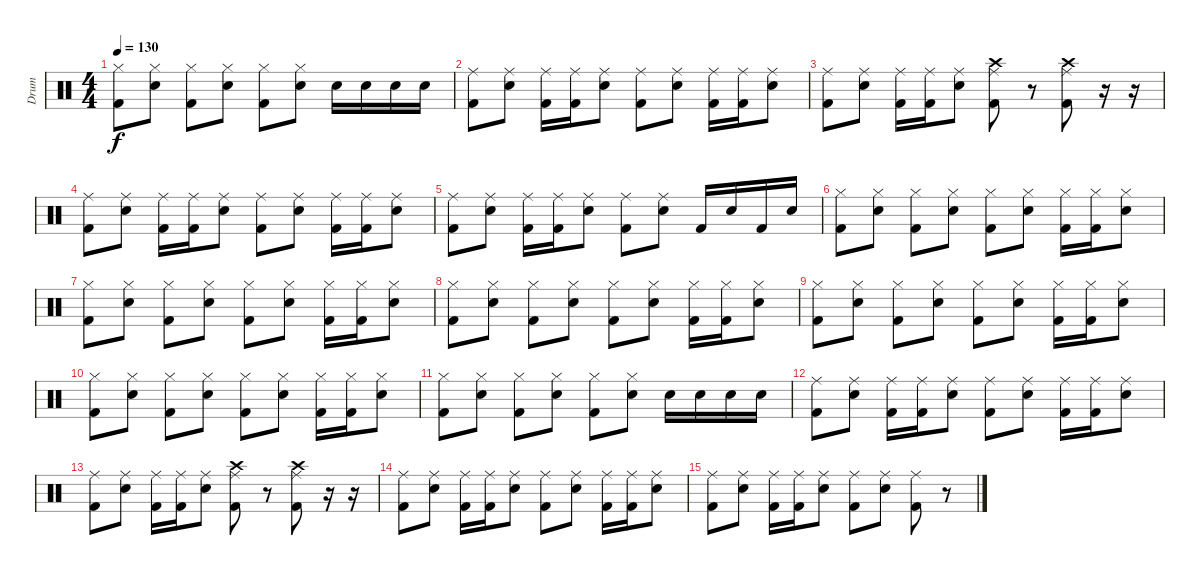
\track ("Drum" "Drum") {instrument percussion}
\staff {score}
\articulation defaults
\ts (4 4)
\tempo 130
\clef neutral
\ks c
("Kick (hit) 2" "Hi-Hat (closed)").8{dy f} ("Electric Snare (hit)" "Hi-Hat (closed)").8 ("Kick (hit) 2" "Hi-Hat (closed)").8 ("Electric Snare (hit)" "Hi-Hat (closed)").8 ("Kick (hit) 2" "Hi-Hat (closed)").8 ("Electric Snare (hit)" "Hi-Hat (closed)").8 "Electric Snare (hit)".16 "Electric Snare (hit)".16 "Electric Snare (hit)".16 "Electric Snare (hit)".16 |
("Kick (hit) 2" "Ride (middle)").8 ("Electric Snare (hit)" "Ride (middle)").8 ("Kick (hit) 2" "Ride (middle)").16 ("Kick (hit) 2" "Ride (middle)").16 ("Electric Snare (hit)" "Ride (middle)").8 ("Kick (hit) 2" "Ride (middle)").8 ("Electric Snare (hit)" "Ride (middle)").8 ("Kick (hit) 2" "Ride (middle)").16 ("Kick (hit) 2" "Ride (middle)").16 ("Electric Snare (hit)" "Ride (middle)").8 |
("Kick (hit) 2" "Ride (middle)").8 ("Electric Snare (hit)" "Ride (middle)").8 ("Kick (hit) 2" "Ride (middle)").16 ("Kick (hit) 2" "Ride (middle)").16 ("Electric Snare (hit)" "Ride (middle)").8 ("Kick (hit) 2" "Ride (middle)" "Crash high (hit)").8 r.8 ("Kick (hit) 2" "Ride (middle)" "Crash high (hit)").8 r.16 r.16 |
("Kick (hit) 2" "Ride (middle)").8 ("Electric Snare (hit)" "Ride (middle)").8 ("Kick (hit) 2" "Ride (middle)").16 ("Kick (hit) 2" "Ride (middle)").16 ("Electric Snare (hit)" "Ride (middle)").8 ("Kick (hit) 2" "Ride (middle)").8 ("Electric Snare (hit)" "Ride (middle)").8 ("Kick (hit) 2" "Ride (middle)").16 ("Kick (hit) 2" "Ride (middle)").16 ("Electric Snare (hit)" "Ride (middle)").8 |
("Kick (hit) 2" "Ride (middle)").8 ("Electric Snare (hit)" "Ride (middle)").8 ("Kick (hit) 2" "Ride (middle)").16 ("Kick (hit) 2" "Ride (middle)").16 ("Electric Snare (hit)" "Ride (middle)").8 ("Kick (hit) 2" "Ride (middle)").8 ("Electric Snare (hit)" "Ride (middle)").8 "Kick (hit) 2".16 "Electric Snare (hit)".16 "Kick (hit) 2".16 "Electric Snare (hit)".16 |
("Kick (hit) 2" "Hi-Hat (closed)").8 ("Electric Snare (hit)" "Hi-Hat (closed)").8 ("Kick (hit) 2" "Hi-Hat (closed)").8 ("Electric Snare (hit)" "Hi-Hat (closed)").8 ("Kick (hit) 2" "Hi-Hat (closed)").8 ("Electric Snare (hit)" "Hi-Hat (closed)").8 ("Kick (hit) 2" "Hi-Hat (closed)").16 ("Kick (hit) 2" "Hi-Hat (closed)").16 ("Electric Snare (hit)" "Hi-Hat (closed)").8 |
("Kick (hit) 2" "Hi-Hat (closed)").8 ("Electric Snare (hit)" "Hi-Hat (closed)").8 ("Kick (hit) 2" "Hi-Hat (closed)").8 ("Electric Snare (hit)" "Hi-Hat (closed)").8 ("Kick (hit) 2" "Hi-Hat (closed)").8 ("Electric Snare (hit)" "Hi-Hat (closed)").8 ("Kick (hit) 2" "Hi-Hat (closed)").16 ("Kick (hit) 2" "Hi-Hat (closed)").16 ("Electric Snare (hit)" "Hi-Hat (closed)").8 |
("Kick (hit) 2" "Hi-Hat (closed)").8 ("Electric Snare (hit)" "Hi-Hat (closed)").8 ("Kick (hit) 2" "Hi-Hat (closed)").8 ("Electric Snare (hit)" "Hi-Hat (closed)").8 ("Kick (hit) 2" "Hi-Hat (closed)").8 ("Electric Snare (hit)" "Hi-Hat (closed)").8 ("Kick (hit) 2" "Hi-Hat (closed)").16 ("Kick (hit) 2" "Hi-Hat (closed)").16 ("Electric Snare (hit)" "Hi-Hat (closed)").8 |
("Kick (hit) 2" "Hi-Hat (closed)").8 ("Electric Snare (hit)" "Hi-Hat (closed)").8 ("Kick (hit) 2" "Hi-Hat (closed)").8 ("Electric Snare (hit)" "Hi-Hat (closed)").8 ("Kick (hit) 2" "Hi-Hat (closed)").8 ("Electric Snare (hit)" "Hi-Hat (closed)").8 ("Kick (hit) 2" "Hi-Hat (closed)").16 ("Kick (hit) 2" "Hi-Hat (closed)").16 ("Electric Snare (hit)" "Hi-Hat (closed)").8 |
("Kick (hit) 2" "Hi-Hat (closed)").8 ("Electric Snare (hit)" "Hi-Hat (closed)").8 ("Kick (hit) 2" "Hi-Hat (closed)").8 ("Electric Snare (hit)" "Hi-Hat (closed)").8 ("Kick (hit) 2" "Hi-Hat (closed)").8 ("Electric Snare (hit)" "Hi-Hat (closed)").8 ("Kick (hit) 2" "Hi-Hat (closed)").16 ("Kick (hit) 2" "Hi-Hat (closed)").16 ("Electric Snare (hit)" "Hi-Hat (closed)").8 |
("Kick (hit) 2" "Hi-Hat (closed)").8 ("Electric Snare (hit)" "Hi-Hat (closed)").8 ("Kick (hit) 2" "Hi-Hat (closed)").8 ("Electric Snare (hit)" "Hi-Hat (closed)").8 ("Kick (hit) 2" "Hi-Hat (closed)").8 ("Electric Snare (hit)" "Hi-Hat (closed)").8 "Electric Snare (hit)".16 "Electric Snare (hit)".16 "Electric Snare (hit)".16 "Electric Snare (hit)".16 |
("Kick (hit) 2" "Ride (middle)").8 ("Electric Snare (hit)" "Ride (middle)").8 ("Kick (hit) 2" "Ride (middle)").16 ("Kick (hit) 2" "Ride (middle)").16 ("Electric Snare (hit)" "Ride (middle)").8 ("Kick (hit) 2" "Ride (middle)").8 ("Electric Snare (hit)" "Ride (middle)").8 ("Kick (hit) 2" "Ride (middle)").16 ("Kick (hit) 2" "Ride (middle)").16 ("Electric Snare (hit)" "Ride (middle)").8 |
("Kick (hit) 2" "Ride (middle)").8 ("Electric Snare (hit)" "Ride (middle)").8 ("Kick (hit) 2" "Ride (middle)").16 ("Kick (hit) 2" "Ride (middle)").16 ("Electric Snare (hit)" "Ride (middle)").8 ("Kick (hit) 2" "Ride (middle)" "Crash high (hit)").8 r.8 ("Kick (hit) 2" "Ride (middle)" "Crash high (hit)").8 r.16 r.16 |
("Kick (hit) 2" "Ride (middle)").8 ("Electric Snare (hit)" "Ride (middle)").8 ("Kick (hit) 2" "Ride (middle)").16 ("Kick (hit) 2" "Ride (middle)").16 ("Electric Snare (hit)" "Ride (middle)").8 ("Kick (hit) 2" "Ride (middle)").8 ("Electric Snare (hit)" "Ride (middle)").8 ("Kick (hit) 2" "Ride (middle)").16 ("Kick (hit) 2" "Ride (middle)").16 ("Electric Snare (hit)" "Ride (middle)").8 |
("Kick (hit) 2" "Ride (middle)").8 ("Electric Snare (hit)" "Ride (middle)").8 ("Kick (hit) 2" "Ride (middle)").16 ("Kick (hit) 2" "Ride (middle)").16 ("Electric Snare (hit)" "Ride (middle)").8 ("Kick (hit) 2" "Ride (middle)").8 ("Electric Snare (hit)" "Ride (middle)").8 ("Kick (hit) 2" "Ride (middle)").8 r.8
